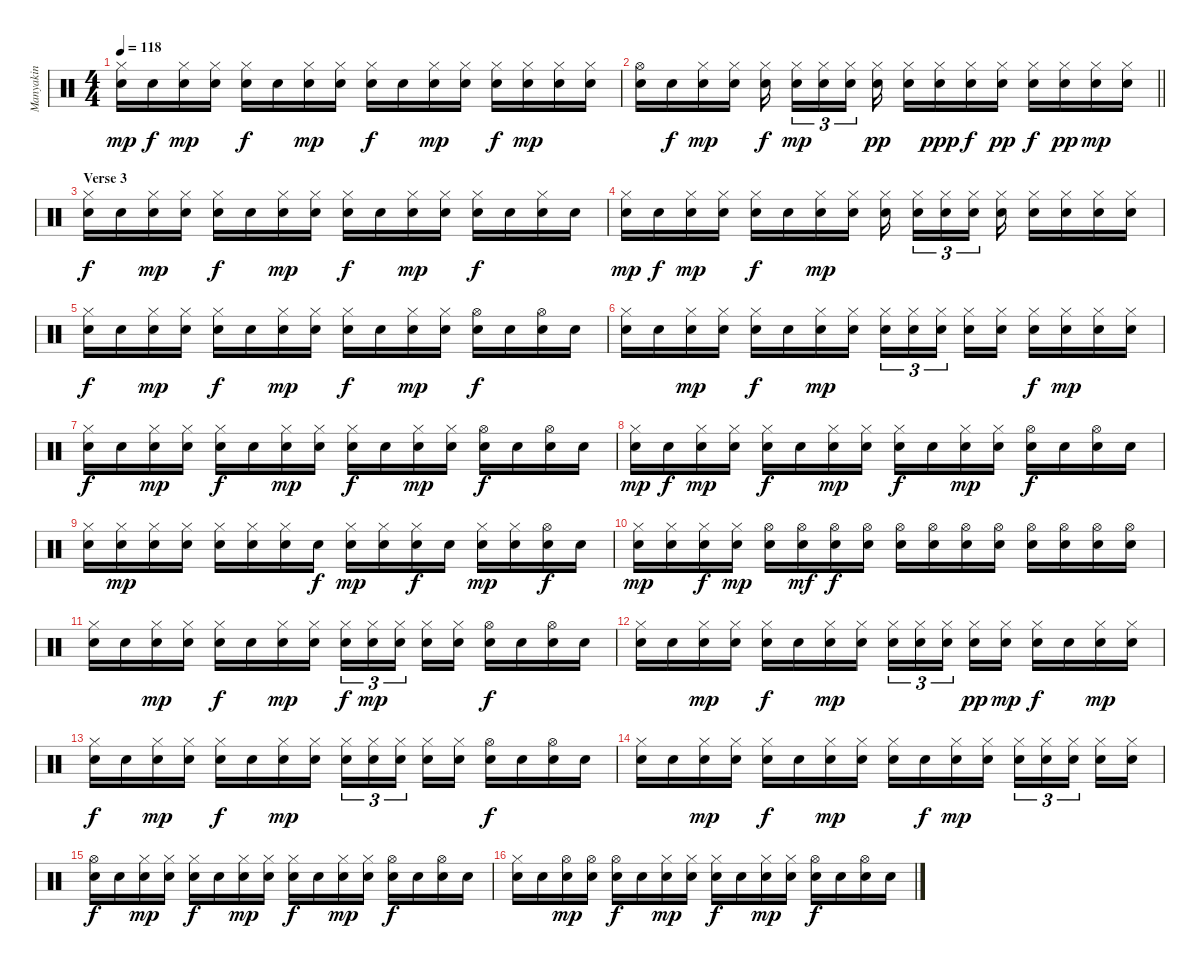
\track ("Manyakin" "Manyakin") {instrument percussion}
\staff {score}
\articulation defaults
\ts (4 4)
\tempo 118
\clef neutral
\ks c
("Hi-Hat (closed)" "Snare (hit)"{x}).16{dy mp} "Snare (hit)"{x}.16{dy f} ("Hi-Hat (closed)" "Snare (hit)"{x}).16{dy mp} ("Hi-Hat (closed)" "Snare (hit)"{x}).16 ("Hi-Hat (closed)" "Snare (hit)"{x}).16{dy f} "Snare (hit)"{x}.16 ("Hi-Hat (closed)" "Snare (hit)"{x}).16{dy mp} ("Hi-Hat (closed)" "Snare (hit)"{x}).16 ("Hi-Hat (closed)" "Snare (hit)"{x}).16{dy f} "Snare (hit)"{x}.16 ("Hi-Hat (closed)" "Snare (hit)"{x}).16{dy mp} ("Hi-Hat (closed)" "Snare (hit)"{x}).16 ("Hi-Hat (closed)" "Snare (hit)"{x}).16{dy f} ("Hi-Hat (closed)" "Snare (hit)"{x}).16{dy mp} ("Hi-Hat (closed)" "Snare (hit)"{x}).16 ("Hi-Hat (closed)" "Snare (hit)"{x}).16 |
\barLineRight lightlight
("Hi-Hat (open)" "Snare (hit)"{x}).16 "Snare (hit)"{x}.16{dy f} ("Hi-Hat (closed)" "Snare (hit)"{x}).16{dy mp} ("Hi-Hat (closed)" "Snare (hit)"{x}).16 ("Hi-Hat (closed)" "Snare (hit)"{x}).16{dy f} ("Hi-Hat (closed)" "Snare (hit)"{x}).16{tu (3 2) dy mp} ("Hi-Hat (closed)" "Snare (hit)"{x}).16{tu (3 2)} ("Hi-Hat (closed)" "Snare (hit)"{x}).16{tu (3 2)} ("Hi-Hat (closed)" "Snare (hit)"{x}).16{dy pp} ("Hi-Hat (closed)" "Snare (hit)"{x}).16 ("Hi-Hat (closed)" "Snare (hit)"{x}).16{dy ppp} ("Hi-Hat (closed)" "Snare (hit)"{x}).16{dy f} ("Hi-Hat (closed)" "Snare (hit)"{x}).16{dy pp} ("Hi-Hat (closed)" "Snare (hit)"{x}).16{dy f} ("Hi-Hat (closed)" "Snare (hit)"{x}).16{dy pp} ("Hi-Hat (closed)" "Snare (hit)"{x}).16{dy mp} ("Hi-Hat (closed)" "Snare (hit)"{x}).16 |
\section ("" "Verse 3")
("Hi-Hat (closed)" "Snare (hit)"{x}).16{dy f} "Snare (hit)"{x}.16 ("Hi-Hat (closed)" "Snare (hit)"{x}).16{dy mp} ("Hi-Hat (closed)" "Snare (hit)"{x}).16 ("Hi-Hat (closed)" "Snare (hit)"{x}).16{dy f} "Snare (hit)"{x}.16 ("Hi-Hat (closed)" "Snare (hit)"{x}).16{dy mp} ("Hi-Hat (closed)" "Snare (hit)"{x}).16 ("Hi-Hat (closed)" "Snare (hit)"{x}).16{dy f} "Snare (hit)"{x}.16 ("Hi-Hat (closed)" "Snare (hit)"{x}).16{dy mp} ("Hi-Hat (closed)" "Snare (hit)"{x}).16 ("Hi-Hat (closed)" "Snare (hit)"{x}).16{dy f} "Snare (hit)"{x}.16 ("Hi-Hat (closed)" "Snare (hit)"{x}).16 "Snare (hit)"{x}.16 |
("Hi-Hat (closed)" "Snare (hit)"{x}).16{dy mp} "Snare (hit)"{x}.16{dy f} ("Hi-Hat (closed)" "Snare (hit)"{x}).16{dy mp} ("Hi-Hat (closed)" "Snare (hit)"{x}).16 ("Hi-Hat (closed)" "Snare (hit)"{x}).16{dy f} "Snare (hit)"{x}.16 ("Hi-Hat (closed)" "Snare (hit)"{x}).16{dy mp} ("Hi-Hat (closed)" "Snare (hit)"{x}).16 ("Hi-Hat (closed)" "Snare (hit)"{x}).16 ("Hi-Hat (closed)" "Snare (hit)"{x}).16{tu (3 2)} ("Hi-Hat (closed)" "Snare (hit)"{x}).16{tu (3 2)} ("Hi-Hat (closed)" "Snare (hit)"{x}).16{tu (3 2)} ("Hi-Hat (closed)" "Snare (hit)"{x}).16 ("Hi-Hat (closed)" "Snare (hit)"{x}).16 ("Hi-Hat (closed)" "Snare (hit)"{x}).16 ("Hi-Hat (closed)" "Snare (hit)"{x}).16 ("Hi-Hat (closed)" "Snare (hit)"{x}).16 |
("Hi-Hat (closed)" "Snare (hit)"{x}).16{dy f} "Snare (hit)"{x}.16 ("Hi-Hat (closed)" "Snare (hit)"{x}).16{dy mp} ("Hi-Hat (closed)" "Snare (hit)"{x}).16 ("Hi-Hat (closed)" "Snare (hit)"{x}).16{dy f} "Snare (hit)"{x}.16 ("Hi-Hat (closed)" "Snare (hit)"{x}).16{dy mp} ("Hi-Hat (closed)" "Snare (hit)"{x}).16 ("Hi-Hat (closed)" "Snare (hit)"{x}).16{dy f} "Snare (hit)"{x}.16 ("Hi-Hat (closed)" "Snare (hit)"{x}).16{dy mp} ("Hi-Hat (closed)" "Snare (hit)"{x}).16 ("Hi-Hat (open)" "Snare (hit)"{x}).16{dy f} "Snare (hit)"{x}.16 ("Hi-Hat (open)" "Snare (hit)"{x}).16 "Snare (hit)"{x}.16 |
("Hi-Hat (closed)" "Snare (hit)"{x}).16 "Snare (hit)"{x}.16 ("Hi-Hat (closed)" "Snare (hit)"{x}).16{dy mp} ("Hi-Hat (closed)" "Snare (hit)"{x}).16 ("Hi-Hat (closed)" "Snare (hit)"{x}).16{dy f} "Snare (hit)"{x}.16 ("Hi-Hat (closed)" "Snare (hit)"{x}).16{dy mp} ("Hi-Hat (closed)" "Snare (hit)"{x}).16 ("Hi-Hat (closed)" "Snare (hit)"{x}).16{tu (3 2)} ("Hi-Hat (closed)" "Snare (hit)"{x}).16{tu (3 2)} ("Hi-Hat (closed)" "Snare (hit)"{x}).16{tu (3 2)} ("Hi-Hat (closed)" "Snare (hit)"{x}).16 ("Hi-Hat (closed)" "Snare (hit)"{x}).16 ("Hi-Hat (closed)" "Snare (hit)"{x}).16{dy f} ("Hi-Hat (closed)" "Snare (hit)"{x}).16{dy mp} ("Hi-Hat (closed)" "Snare (hit)"{x}).16 ("Hi-Hat (closed)" "Snare (hit)"{x}).16 |
("Hi-Hat (closed)" "Snare (hit)"{x}).16{dy f} "Snare (hit)"{x}.16 ("Hi-Hat (closed)" "Snare (hit)"{x}).16{dy mp} ("Hi-Hat (closed)" "Snare (hit)"{x}).16 ("Hi-Hat (closed)" "Snare (hit)"{x}).16{dy f} "Snare (hit)"{x}.16 ("Hi-Hat (closed)" "Snare (hit)"{x}).16{dy mp} ("Hi-Hat (closed)" "Snare (hit)"{x}).16 ("Hi-Hat (closed)" "Snare (hit)"{x}).16{dy f} "Snare (hit)"{x}.16 ("Hi-Hat (closed)" "Snare (hit)"{x}).16{dy mp} ("Hi-Hat (closed)" "Snare (hit)"{x}).16 ("Hi-Hat (open)" "Snare (hit)"{x}).16{dy f} "Snare (hit)"{x}.16 ("Hi-Hat (open)" "Snare (hit)"{x}).16 "Snare (hit)"{x}.16 |
("Hi-Hat (closed)" "Snare (hit)"{x}).16{dy mp} "Snare (hit)"{x}.16{dy f} ("Hi-Hat (closed)" "Snare (hit)"{x}).16{dy mp} ("Hi-Hat (closed)" "Snare (hit)"{x}).16 ("Hi-Hat (closed)" "Snare (hit)"{x}).16{dy f} "Snare (hit)"{x}.16 ("Hi-Hat (closed)" "Snare (hit)"{x}).16{dy mp} ("Hi-Hat (closed)" "Snare (hit)"{x}).16 ("Hi-Hat (closed)" "Snare (hit)"{x}).16{dy f} "Snare (hit)"{x}.16 ("Hi-Hat (closed)" "Snare (hit)"{x}).16{dy mp} ("Hi-Hat (closed)" "Snare (hit)"{x}).16 ("Hi-Hat (open)" "Snare (hit)"{x}).16{dy f} "Snare (hit)"{x}.16 ("Hi-Hat (open)" "Snare (hit)"{x}).16 "Snare (hit)"{x}.16 |
("Hi-Hat (closed)" "Snare (hit)"{x}).16 ("Hi-Hat (closed)" "Snare (hit)"{x}).16{dy mp} ("Hi-Hat (closed)" "Snare (hit)"{x}).16 ("Hi-Hat (closed)" "Snare (hit)"{x}).16 ("Hi-Hat (closed)" "Snare (hit)"{x}).16 ("Hi-Hat (closed)" "Snare (hit)"{x}).16 ("Hi-Hat (closed)" "Snare (hit)"{x}).16 "Snare (hit)"{x}.16{dy f} ("Hi-Hat (closed)" "Snare (hit)"{x}).16{dy mp} ("Hi-Hat (closed)" "Snare (hit)"{x}).16 ("Hi-Hat (closed)" "Snare (hit)"{x}).16{dy f} "Snare (hit)"{x}.16 ("Hi-Hat (closed)" "Snare (hit)"{x}).16{dy mp} ("Hi-Hat (closed)" "Snare (hit)"{x}).16 ("Hi-Hat (open)" "Snare (hit)"{x}).16{dy f} "Snare (hit)"{x}.16 |
("Hi-Hat (closed)" "Snare (hit)"{x}).16{dy mp} ("Hi-Hat (closed)" "Snare (hit)"{x}).16 ("Hi-Hat (closed)" "Snare (hit)"{x}).16{dy f} ("Hi-Hat (closed)" "Snare (hit)"{x}).16{dy mp} ("Hi-Hat (open)" "Snare (hit)"{x}).16 ("Hi-Hat (open)" "Snare (hit)"{x}).16{dy mf} ("Hi-Hat (open)" "Snare (hit)"{x}).16{dy f} ("Hi-Hat (open)" "Snare (hit)"{x}).16 ("Hi-Hat (open)" "Snare (hit)"{x}).16 ("Hi-Hat (open)" "Snare (hit)"{x}).16 ("Hi-Hat (open)" "Snare (hit)"{x}).16 ("Hi-Hat (open)" "Snare (hit)"{x}).16 ("Hi-Hat (open)" "Snare (hit)"{x}).16 ("Hi-Hat (open)" "Snare (hit)"{x}).16 ("Hi-Hat (open)" "Snare (hit)"{x}).16 ("Hi-Hat (open)" "Snare (hit)"{x}).16 |
("Hi-Hat (closed)" "Snare (hit)"{x}).16 "Snare (hit)"{x}.16 ("Hi-Hat (closed)" "Snare (hit)"{x}).16{dy mp} ("Hi-Hat (closed)" "Snare (hit)"{x}).16 ("Hi-Hat (closed)" "Snare (hit)"{x}).16{dy f} "Snare (hit)"{x}.16 ("Hi-Hat (closed)" "Snare (hit)"{x}).16{dy mp} ("Hi-Hat (closed)" "Snare (hit)"{x}).16 ("Hi-Hat (closed)" "Snare (hit)"{x}).16{tu (3 2) dy f} ("Hi-Hat (closed)" "Snare (hit)"{x}).16{tu (3 2) dy mp} ("Hi-Hat (closed)" "Snare (hit)"{x}).16{tu (3 2)} ("Hi-Hat (closed)" "Snare (hit)"{x}).16 ("Hi-Hat (closed)" "Snare (hit)"{x}).16 ("Hi-Hat (open)" "Snare (hit)"{x}).16{dy f} "Snare (hit)"{x}.16 ("Hi-Hat (open)" "Snare (hit)"{x}).16 "Snare (hit)"{x}.16 |
("Hi-Hat (closed)" "Snare (hit)"{x}).16 "Snare (hit)"{x}.16 ("Hi-Hat (closed)" "Snare (hit)"{x}).16{dy mp} ("Hi-Hat (closed)" "Snare (hit)"{x}).16 ("Hi-Hat (closed)" "Snare (hit)"{x}).16{dy f} "Snare (hit)"{x}.16 ("Hi-Hat (closed)" "Snare (hit)"{x}).16{dy mp} ("Hi-Hat (closed)" "Snare (hit)"{x}).16 ("Hi-Hat (closed)" "Snare (hit)"{x}).16{tu (3 2)} ("Hi-Hat (closed)" "Snare (hit)"{x}).16{tu (3 2)} ("Hi-Hat (closed)" "Snare (hit)"{x}).16{tu (3 2)} ("Hi-Hat (closed)" "Snare (hit)"{x}).16{dy pp} ("Hi-Hat (closed)" "Snare (hit)"{x}).16{dy mp} ("Hi-Hat (closed)" "Snare (hit)"{x}).16{dy f} "Snare (hit)"{x}.16 ("Hi-Hat (closed)" "Snare (hit)"{x}).16{dy mp} ("Hi-Hat (closed)" "Snare (hit)"{x}).16 |
("Hi-Hat (closed)" "Snare (hit)"{x}).16{dy f} "Snare (hit)"{x}.16 ("Hi-Hat (closed)" "Snare (hit)"{x}).16{dy mp} ("Hi-Hat (closed)" "Snare (hit)"{x}).16 ("Hi-Hat (closed)" "Snare (hit)"{x}).16{dy f} "Snare (hit)"{x}.16 ("Hi-Hat (closed)" "Snare (hit)"{x}).16{dy mp} ("Hi-Hat (closed)" "Snare (hit)"{x}).16 ("Hi-Hat (closed)" "Snare (hit)"{x}).16{tu (3 2)} ("Hi-Hat (closed)" "Snare (hit)"{x}).16{tu (3 2)} ("Hi-Hat (closed)" "Snare (hit)"{x}).16{tu (3 2)} ("Hi-Hat (closed)" "Snare (hit)"{x}).16 ("Hi-Hat (closed)" "Snare (hit)"{x}).16 ("Hi-Hat (open)" "Snare (hit)"{x}).16{dy f} "Snare (hit)"{x}.16 ("Hi-Hat (open)" "Snare (hit)"{x}).16 "Snare (hit)"{x}.16 |
("Hi-Hat (closed)" "Snare (hit)"{x}).16 "Snare (hit)"{x}.16 ("Hi-Hat (closed)" "Snare (hit)"{x}).16{dy mp} ("Hi-Hat (closed)" "Snare (hit)"{x}).16 ("Hi-Hat (closed)" "Snare (hit)"{x}).16{dy f} "Snare (hit)"{x}.16 ("Hi-Hat (closed)" "Snare (hit)"{x}).16{dy mp} ("Hi-Hat (closed)" "Snare (hit)"{x}).16 ("Hi-Hat (closed)" "Snare (hit)"{x}).16 "Snare (hit)"{x}.16{dy f} ("Hi-Hat (closed)" "Snare (hit)"{x}).16{dy mp} ("Hi-Hat (closed)" "Snare (hit)"{x}).16 ("Hi-Hat (closed)" "Snare (hit)"{x}).16{tu (3 2)} ("Hi-Hat (closed)" "Snare (hit)"{x}).16{tu (3 2)} ("Hi-Hat (closed)" "Snare (hit)"{x}).16{tu (3 2)} ("Hi-Hat (closed)" "Snare (hit)"{x}).16 ("Hi-Hat (closed)" "Snare (hit)"{x}).16 |
("Hi-Hat (open)" "Snare (hit)"{x}).16{dy f} "Snare (hit)"{x}.16 ("Hi-Hat (closed)" "Snare (hit)"{x}).16{dy mp} ("Hi-Hat (closed)" "Snare (hit)"{x}).16 ("Hi-Hat (closed)" "Snare (hit)"{x}).16{dy f} "Snare (hit)"{x}.16 ("Hi-Hat (closed)" "Snare (hit)"{x}).16{dy mp} ("Hi-Hat (closed)" "Snare (hit)"{x}).16 ("Hi-Hat (closed)" "Snare (hit)"{x}).16{dy f} "Snare (hit)"{x}.16 ("Hi-Hat (closed)" "Snare (hit)"{x}).16{dy mp} ("Hi-Hat (closed)" "Snare (hit)"{x}).16 ("Hi-Hat (open)" "Snare (hit)"{x}).16{dy f} "Snare (hit)"{x}.16 ("Hi-Hat (open)" "Snare (hit)"{x}).16 "Snare (hit)"{x}.16 |
("Hi-Hat (closed)" "Snare (hit)"{x}).16 "Snare (hit)"{x}.16 ("Hi-Hat (open)" "Snare (hit)"{x}).16{dy mp} ("Hi-Hat (open)" "Snare (hit)"{x}).16 ("Hi-Hat (open)" "Snare (hit)"{x}).16{dy f} "Snare (hit)"{x}.16 ("Hi-Hat (closed)" "Snare (hit)"{x}).16{dy mp} ("Hi-Hat (closed)" "Snare (hit)"{x}).16 ("Hi-Hat (closed)" "Snare (hit)"{x}).16{dy f} "Snare (hit)"{x}.16 ("Hi-Hat (closed)" "Snare (hit)"{x}).16{dy mp} ("Hi-Hat (closed)" "Snare (hit)"{x}).16 ("Hi-Hat (open)" "Snare (hit)"{x}).16{dy f} "Snare (hit)"{x}.16 ("Hi-Hat (open)" "Snare (hit)"{x}).16 "Snare (hit)"{x}.16
